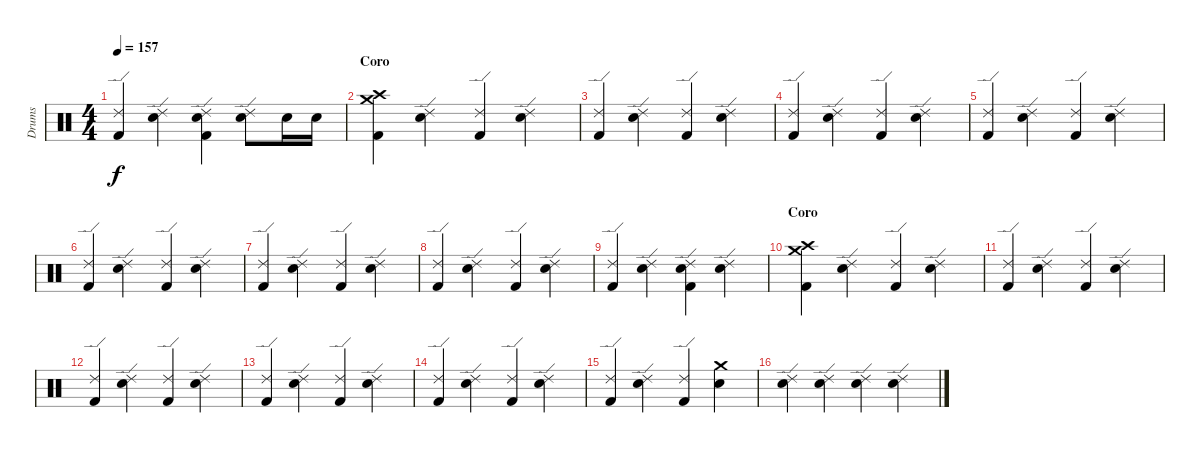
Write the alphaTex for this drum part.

\track ("Drums" "Drums") {instrument percussion}
\staff {score}
\articulation defaults
\ts (4 4)
\tempo 157
\clef neutral
\ks c
("Ride (edge) 2" "Kick (hit) 2").4{dy f} ("Ride (edge) 2" "Electric Snare (hit)").4 ("Ride (edge) 2" "Electric Snare (hit)" "Kick (hit) 2").4 ("Ride (edge) 2" "Electric Snare (hit)").8 "Electric Snare (hit)".16 "Electric Snare (hit)".16 |
\section ("" "Coro")
("Crash medium (hit)" "Crash high (hit)" "Kick (hit) 2").4 ("Ride (edge) 2" "Electric Snare (hit)").4 ("Ride (edge) 2" "Kick (hit) 2").4 ("Ride (edge) 2" "Electric Snare (hit)").4 |
("Ride (edge) 2" "Kick (hit) 2").4 ("Ride (edge) 2" "Electric Snare (hit)").4 ("Ride (edge) 2" "Kick (hit) 2").4 ("Ride (edge) 2" "Electric Snare (hit)").4 |
("Ride (edge) 2" "Kick (hit) 2").4 ("Ride (edge) 2" "Electric Snare (hit)").4 ("Ride (edge) 2" "Kick (hit) 2").4 ("Ride (edge) 2" "Electric Snare (hit)").4 |
("Ride (edge) 2" "Kick (hit) 2").4 ("Ride (edge) 2" "Electric Snare (hit)").4 ("Ride (edge) 2" "Kick (hit) 2").4 ("Ride (edge) 2" "Electric Snare (hit)").4 |
("Ride (edge) 2" "Kick (hit) 2").4 ("Ride (edge) 2" "Electric Snare (hit)").4 ("Ride (edge) 2" "Kick (hit) 2").4 ("Ride (edge) 2" "Electric Snare (hit)").4 |
("Ride (edge) 2" "Kick (hit) 2").4 ("Ride (edge) 2" "Electric Snare (hit)").4 ("Ride (edge) 2" "Kick (hit) 2").4 ("Ride (edge) 2" "Electric Snare (hit)").4 |
("Ride (edge) 2" "Kick (hit) 2").4 ("Ride (edge) 2" "Electric Snare (hit)").4 ("Ride (edge) 2" "Kick (hit) 2").4 ("Ride (edge) 2" "Electric Snare (hit)").4 |
("Ride (edge) 2" "Kick (hit) 2").4 ("Ride (edge) 2" "Electric Snare (hit)").4 ("Ride (edge) 2" "Electric Snare (hit)" "Kick (hit) 2").4 ("Ride (edge) 2" "Electric Snare (hit)").4 |
\section ("" "Coro")
("Crash medium (hit)" "Crash high (hit)" "Kick (hit) 2").4 ("Ride (edge) 2" "Electric Snare (hit)").4 ("Ride (edge) 2" "Kick (hit) 2").4 ("Ride (edge) 2" "Electric Snare (hit)").4 |
("Ride (edge) 2" "Kick (hit) 2").4 ("Ride (edge) 2" "Electric Snare (hit)").4 ("Ride (edge) 2" "Kick (hit) 2").4 ("Ride (edge) 2" "Electric Snare (hit)").4 |
("Ride (edge) 2" "Kick (hit) 2").4 ("Ride (edge) 2" "Electric Snare (hit)").4 ("Ride (edge) 2" "Kick (hit) 2").4 ("Ride (edge) 2" "Electric Snare (hit)").4 |
("Ride (edge) 2" "Kick (hit) 2").4 ("Ride (edge) 2" "Electric Snare (hit)").4 ("Ride (edge) 2" "Kick (hit) 2").4 ("Ride (edge) 2" "Electric Snare (hit)").4 |
("Ride (edge) 2" "Kick (hit) 2").4 ("Ride (edge) 2" "Electric Snare (hit)").4 ("Ride (edge) 2" "Kick (hit) 2").4 ("Ride (edge) 2" "Electric Snare (hit)").4 |
("Ride (edge) 2" "Kick (hit) 2").4 ("Ride (edge) 2" "Electric Snare (hit)").4 ("Ride (edge) 2" "Kick (hit) 2").4 ("Crash medium (hit)" "Electric Snare (hit)").4 |
("Ride (edge) 2" "Electric Snare (hit)").4 ("Ride (edge) 2" "Electric Snare (hit)").4 ("Ride (edge) 2" "Electric Snare (hit)").4 ("Ride (edge) 2" "Electric Snare (hit)").4
